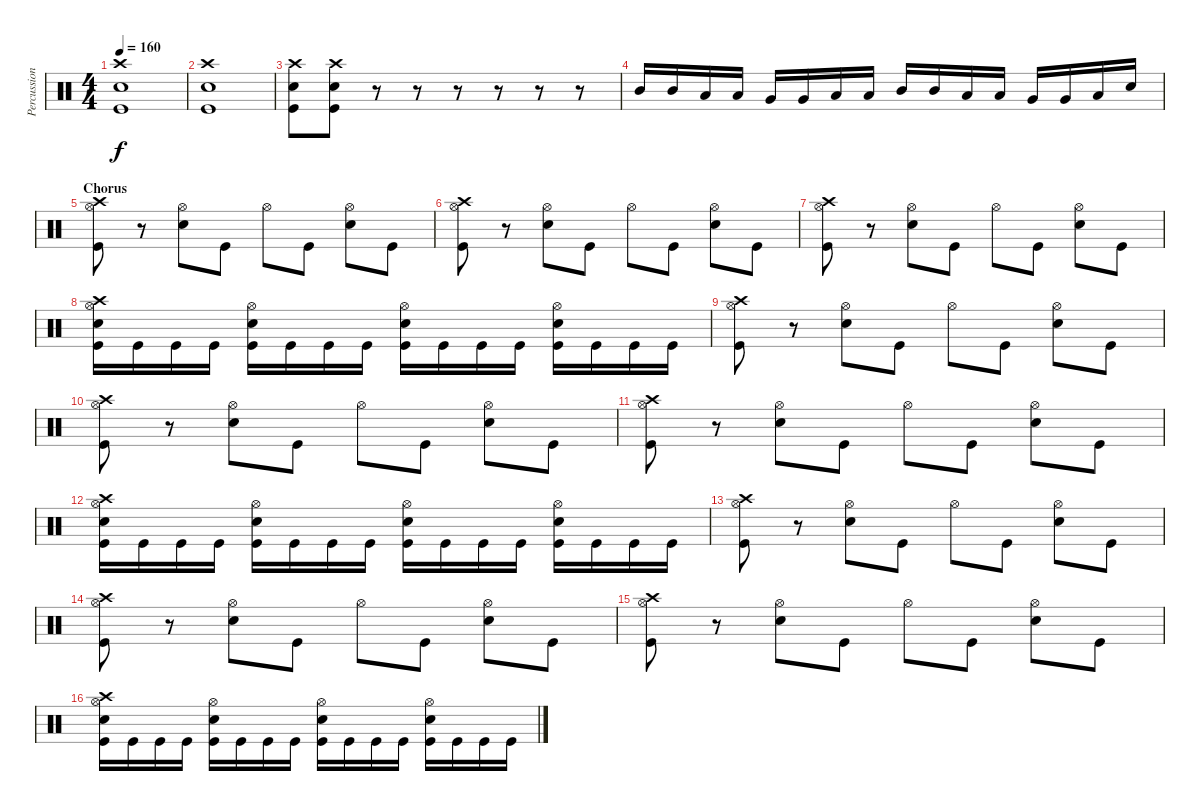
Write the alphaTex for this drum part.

\track ("Percussion" "Percussion") {instrument percussion}
\staff {score}
\articulation defaults
\ts (4 4)
\tempo 160
\clef neutral
\ks c
("Crash high (hit)" "Electric Snare (hit)" "Kick (hit)").1{dy f} |
("Crash high (hit)" "Electric Snare (hit)" "Kick (hit)").1 |
("Crash high (hit)" "Electric Snare (hit)" "Kick (hit)").8 ("Crash high (hit)" "Electric Snare (hit)" "Kick (hit)").8 r.8 r.8 r.8 r.8 r.8 r.8 |
"Mid Tom (hit)".16 "Mid Tom (hit)".16 "Low Tom (hit)".16 "Low Tom (hit)".16 "Very Low Tom (hit)".16 "Very Low Tom (hit)".16 "Low Floor Tom (hit)".16 "Low Floor Tom (hit)".16 "Mid Tom (hit)".16 "Mid Tom (hit)".16 "Low Tom (hit)".16 "Low Tom (hit)".16 "Very Low Tom (hit)".16 "Very Low Tom (hit)".16 "Low Floor Tom (hit)".16 "Snare (hit)".16 |
\section ("" "Chorus")
("Crash high (hit)" "Hi-Hat (open)" "Kick (hit)").8 r.8 ("Electric Snare (hit)" "Hi-Hat (open)").8 "Kick (hit)".8 "Hi-Hat (open)".8 "Kick (hit)".8 ("Hi-Hat (open)" "Electric Snare (hit)").8 "Kick (hit)".8 |
("Crash high (hit)" "Hi-Hat (open)" "Kick (hit)").8 r.8 ("Electric Snare (hit)" "Hi-Hat (open)").8 "Kick (hit)".8 "Hi-Hat (open)".8 "Kick (hit)".8 ("Hi-Hat (open)" "Electric Snare (hit)").8 "Kick (hit)".8 |
("Crash high (hit)" "Hi-Hat (open)" "Kick (hit)").8 r.8 ("Electric Snare (hit)" "Hi-Hat (open)").8 "Kick (hit)".8 "Hi-Hat (open)".8 "Kick (hit)".8 ("Hi-Hat (open)" "Electric Snare (hit)").8 "Kick (hit)".8 |
("Crash high (hit)" "Hi-Hat (open)" "Electric Snare (hit)" "Kick (hit)").16 "Kick (hit)".16 "Kick (hit)".16 "Kick (hit)".16 ("Hi-Hat (open)" "Electric Snare (hit)" "Kick (hit)").16 "Kick (hit)".16 "Kick (hit)".16 "Kick (hit)".16 ("Hi-Hat (open)" "Electric Snare (hit)" "Kick (hit)").16 "Kick (hit)".16 "Kick (hit)".16 "Kick (hit)".16 ("Hi-Hat (open)" "Electric Snare (hit)" "Kick (hit)").16 "Kick (hit)".16 "Kick (hit)".16 "Kick (hit)".16 |
("Crash high (hit)" "Hi-Hat (open)" "Kick (hit)").8 r.8 ("Electric Snare (hit)" "Hi-Hat (open)").8 "Kick (hit)".8 "Hi-Hat (open)".8 "Kick (hit)".8 ("Hi-Hat (open)" "Electric Snare (hit)").8 "Kick (hit)".8 |
("Crash high (hit)" "Hi-Hat (open)" "Kick (hit)").8 r.8 ("Electric Snare (hit)" "Hi-Hat (open)").8 "Kick (hit)".8 "Hi-Hat (open)".8 "Kick (hit)".8 ("Hi-Hat (open)" "Electric Snare (hit)").8 "Kick (hit)".8 |
("Crash high (hit)" "Hi-Hat (open)" "Kick (hit)").8 r.8 ("Electric Snare (hit)" "Hi-Hat (open)").8 "Kick (hit)".8 "Hi-Hat (open)".8 "Kick (hit)".8 ("Hi-Hat (open)" "Electric Snare (hit)").8 "Kick (hit)".8 |
("Crash high (hit)" "Hi-Hat (open)" "Electric Snare (hit)" "Kick (hit)").16 "Kick (hit)".16 "Kick (hit)".16 "Kick (hit)".16 ("Hi-Hat (open)" "Electric Snare (hit)" "Kick (hit)").16 "Kick (hit)".16 "Kick (hit)".16 "Kick (hit)".16 ("Hi-Hat (open)" "Electric Snare (hit)" "Kick (hit)").16 "Kick (hit)".16 "Kick (hit)".16 "Kick (hit)".16 ("Hi-Hat (open)" "Electric Snare (hit)" "Kick (hit)").16 "Kick (hit)".16 "Kick (hit)".16 "Kick (hit)".16 |
("Crash high (hit)" "Hi-Hat (open)" "Kick (hit)").8 r.8 ("Electric Snare (hit)" "Hi-Hat (open)").8 "Kick (hit)".8 "Hi-Hat (open)".8 "Kick (hit)".8 ("Hi-Hat (open)" "Electric Snare (hit)").8 "Kick (hit)".8 |
("Crash high (hit)" "Hi-Hat (open)" "Kick (hit)").8 r.8 ("Electric Snare (hit)" "Hi-Hat (open)").8 "Kick (hit)".8 "Hi-Hat (open)".8 "Kick (hit)".8 ("Hi-Hat (open)" "Electric Snare (hit)").8 "Kick (hit)".8 |
("Crash high (hit)" "Hi-Hat (open)" "Kick (hit)").8 r.8 ("Electric Snare (hit)" "Hi-Hat (open)").8 "Kick (hit)".8 "Hi-Hat (open)".8 "Kick (hit)".8 ("Hi-Hat (open)" "Electric Snare (hit)").8 "Kick (hit)".8 |
("Crash high (hit)" "Hi-Hat (open)" "Electric Snare (hit)" "Kick (hit)").16 "Kick (hit)".16 "Kick (hit)".16 "Kick (hit)".16 ("Hi-Hat (open)" "Electric Snare (hit)" "Kick (hit)").16 "Kick (hit)".16 "Kick (hit)".16 "Kick (hit)".16 ("Hi-Hat (open)" "Electric Snare (hit)" "Kick (hit)").16 "Kick (hit)".16 "Kick (hit)".16 "Kick (hit)".16 ("Hi-Hat (open)" "Electric Snare (hit)" "Kick (hit)").16 "Kick (hit)".16 "Kick (hit)".16 "Kick (hit)".16
